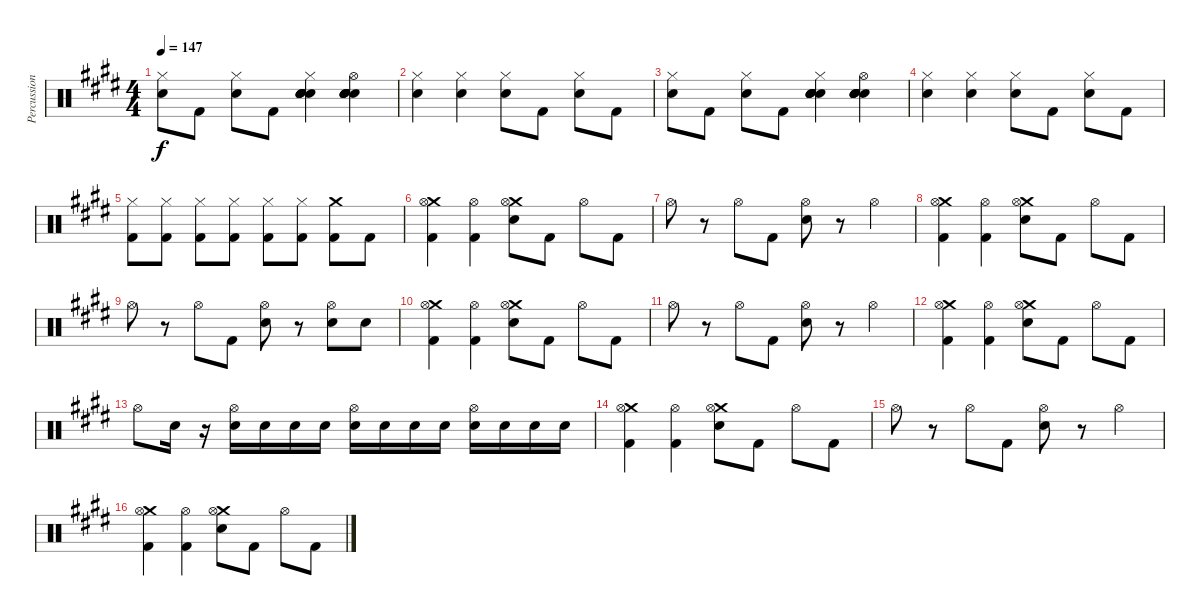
\track ("Percussion" "Percussion") {instrument percussion}
\staff {score}
\articulation defaults
\ts (4 4)
\tempo 147
\clef neutral
\ks e
("Hi-Hat (closed)" "Electric Snare (hit)").8{dy f} "Kick (hit) 2".8 ("Hi-Hat (closed)" "Electric Snare (hit)").8 "Kick (hit) 2".8 ("Hand Clap (hit)" "Hand Clap (hit)" "Hi-Hat (closed)" "Hand Clap (hit)" "Electric Snare (hit)" "Hand Clap (hit)").4{bd 60} ("Hand Clap (hit)" "Hand Clap (hit)" "Hi-Hat (open)" "Hand Clap (hit)" "Electric Snare (hit)" "Hand Clap (hit)").4{bd 60} |
("Hi-Hat (closed)" "Electric Snare (hit)").4 ("Hi-Hat (closed)" "Electric Snare (hit)").4 ("Hi-Hat (closed)" "Electric Snare (hit)").8 "Kick (hit) 2".8 ("Hi-Hat (closed)" "Electric Snare (hit)").8 "Kick (hit) 2".8 |
("Hi-Hat (closed)" "Electric Snare (hit)").8 "Kick (hit) 2".8 ("Hi-Hat (closed)" "Electric Snare (hit)").8 "Kick (hit) 2".8 ("Hand Clap (hit)" "Hand Clap (hit)" "Hi-Hat (closed)" "Hand Clap (hit)" "Electric Snare (hit)" "Hand Clap (hit)").4{bd 60} ("Hand Clap (hit)" "Hand Clap (hit)" "Hi-Hat (open)" "Hand Clap (hit)" "Electric Snare (hit)" "Hand Clap (hit)").4{bd 60} |
("Hi-Hat (closed)" "Electric Snare (hit)").4 ("Hi-Hat (closed)" "Electric Snare (hit)").4 ("Hi-Hat (closed)" "Electric Snare (hit)").8 "Kick (hit) 2".8 ("Hi-Hat (closed)" "Electric Snare (hit)").8 "Kick (hit) 2".8 |
("Hi-Hat (closed)" "Kick (hit) 2").8 ("Hi-Hat (closed)" "Kick (hit) 2").8 ("Hi-Hat (closed)" "Kick (hit) 2").8 ("Hi-Hat (closed)" "Kick (hit) 2").8 ("Hi-Hat (closed)" "Kick (hit) 2").8 ("Hi-Hat (closed)" "Kick (hit) 2").8 ("Crash medium (hit)" "Kick (hit) 2").8 "Kick (hit) 2".8 |
("Crash medium (hit)" "Hi-Hat (open)" "Kick (hit) 2").4 ("Hi-Hat (open)" "Kick (hit) 2").4 ("Crash medium (hit)" "Hi-Hat (open)" "Electric Snare (hit)").8 "Kick (hit) 2".8 "Hi-Hat (open)".8 "Kick (hit) 2".8 |
"Hi-Hat (open)".8 r.8 "Hi-Hat (open)".8 "Kick (hit) 2".8 ("Hi-Hat (open)" "Electric Snare (hit)").8 r.8 "Hi-Hat (open)".4 |
("Crash medium (hit)" "Hi-Hat (open)" "Kick (hit) 2").4 ("Hi-Hat (open)" "Kick (hit) 2").4 ("Crash medium (hit)" "Hi-Hat (open)" "Electric Snare (hit)").8 "Kick (hit) 2".8 "Hi-Hat (open)".8 "Kick (hit) 2".8 |
"Hi-Hat (open)".8 r.8 "Hi-Hat (open)".8 "Kick (hit) 2".8 ("Hi-Hat (open)" "Electric Snare (hit)").8 r.8 ("Hi-Hat (open)" "Electric Snare (hit)").8 "Electric Snare (hit)".8 |
("Crash medium (hit)" "Hi-Hat (open)" "Kick (hit) 2").4 ("Hi-Hat (open)" "Kick (hit) 2").4 ("Crash medium (hit)" "Hi-Hat (open)" "Electric Snare (hit)").8 "Kick (hit) 2".8 "Hi-Hat (open)".8 "Kick (hit) 2".8 |
"Hi-Hat (open)".8 r.8 "Hi-Hat (open)".8 "Kick (hit) 2".8 ("Hi-Hat (open)" "Electric Snare (hit)").8 r.8 "Hi-Hat (open)".4 |
("Crash medium (hit)" "Hi-Hat (open)" "Kick (hit) 2").4 ("Hi-Hat (open)" "Kick (hit) 2").4 ("Crash medium (hit)" "Hi-Hat (open)" "Electric Snare (hit)").8 "Kick (hit) 2".8 "Hi-Hat (open)".8 "Kick (hit) 2".8 |
"Hi-Hat (open)".8 "Electric Snare (hit)".16 r.16{volume 1} ("Hi-Hat (open)" "Electric Snare (hit)").16 "Electric Snare (hit)".16{volume 16} "Electric Snare (hit)".16 "Electric Snare (hit)".16 ("Hi-Hat (open)" "Electric Snare (hit)").16 "Electric Snare (hit)".16 "Electric Snare (hit)".16 "Electric Snare (hit)".16 ("Hi-Hat (open)" "Electric Snare (hit)").16 "Electric Snare (hit)".16 "Electric Snare (hit)".16 "Electric Snare (hit)".16 |
("Crash medium (hit)" "Hi-Hat (open)" "Kick (hit) 2").4{volume 16} ("Hi-Hat (open)" "Kick (hit) 2").4 ("Crash medium (hit)" "Hi-Hat (open)" "Electric Snare (hit)").8 "Kick (hit) 2".8 "Hi-Hat (open)".8 "Kick (hit) 2".8 |
"Hi-Hat (open)".8 r.8 "Hi-Hat (open)".8 "Kick (hit) 2".8 ("Hi-Hat (open)" "Electric Snare (hit)").8 r.8 "Hi-Hat (open)".4 |
("Crash medium (hit)" "Hi-Hat (open)" "Kick (hit) 2").4 ("Hi-Hat (open)" "Kick (hit) 2").4 ("Crash medium (hit)" "Hi-Hat (open)" "Electric Snare (hit)").8 "Kick (hit) 2".8 "Hi-Hat (open)".8 "Kick (hit) 2".8
